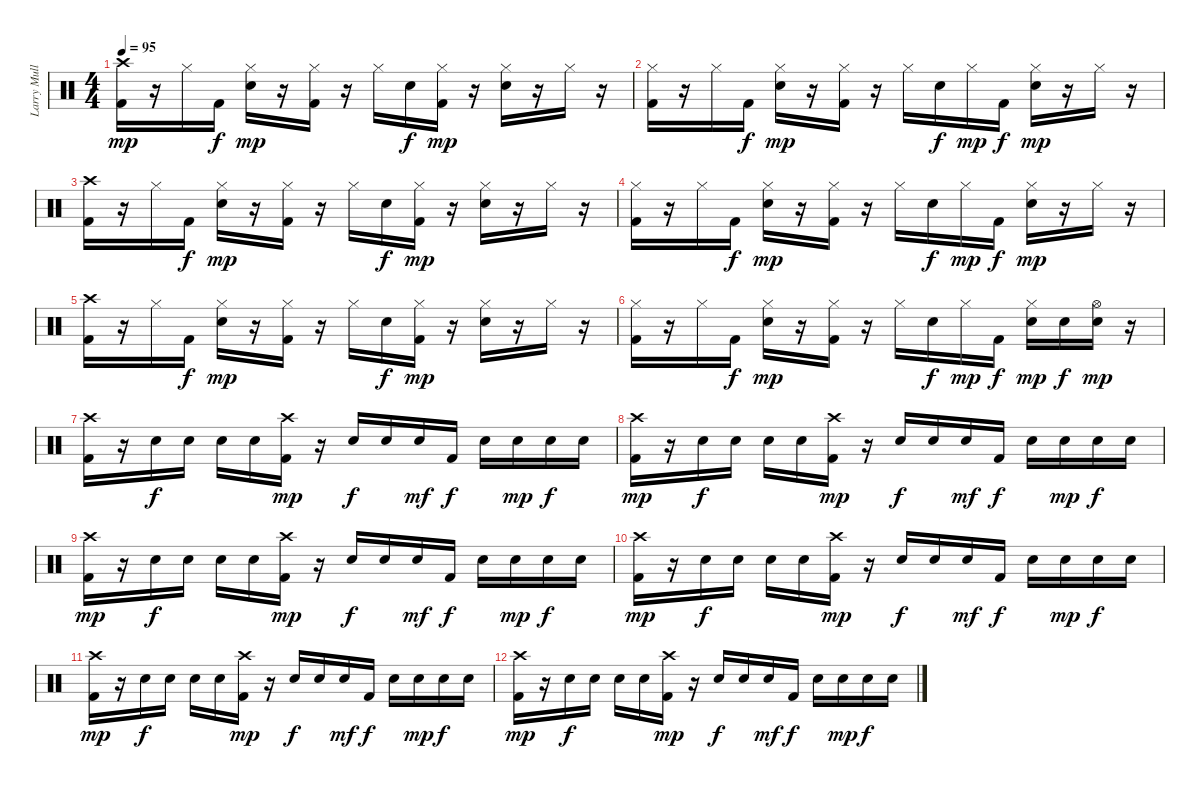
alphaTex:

\track ("Larry Mullen Jr" "Larry Mull") {instrument percussion}
\staff {score}
\articulation defaults
\ts (4 4)
\tempo 95
\clef neutral
\ks c
("Crash high (hit)" "Kick (hit) 2").16{dy mp} r.16 "Hi-Hat (closed)".16 "Kick (hit) 2".16{dy f} ("Hi-Hat (closed)" "Snare (hit) 2").16{dy mp} r.16 ("Hi-Hat (closed)" "Kick (hit) 2").16 r.16 "Hi-Hat (closed)".16 "Snare (hit) 2".16{dy f} ("Hi-Hat (closed)" "Kick (hit) 2").16{dy mp} r.16 ("Hi-Hat (closed)" "Snare (hit) 2").16 r.16 "Hi-Hat (closed)".16 r.16 |
("Hi-Hat (closed)" "Kick (hit) 2").16 r.16 "Hi-Hat (closed)".16 "Kick (hit) 2".16{dy f} ("Hi-Hat (closed)" "Snare (hit) 2").16{dy mp} r.16 ("Hi-Hat (closed)" "Kick (hit) 2").16 r.16 "Hi-Hat (closed)".16 "Snare (hit) 2".16{dy f} "Hi-Hat (closed)".16{dy mp} "Kick (hit) 2".16{dy f} ("Hi-Hat (closed)" "Snare (hit) 2").16{dy mp} r.16 "Hi-Hat (closed)".16 r.16 |
("Crash high (hit)" "Kick (hit) 2").16 r.16 "Hi-Hat (closed)".16 "Kick (hit) 2".16{dy f} ("Hi-Hat (closed)" "Snare (hit) 2").16{dy mp} r.16 ("Hi-Hat (closed)" "Kick (hit) 2").16 r.16 "Hi-Hat (closed)".16 "Snare (hit) 2".16{dy f} ("Hi-Hat (closed)" "Kick (hit) 2").16{dy mp} r.16 ("Hi-Hat (closed)" "Snare (hit) 2").16 r.16 "Hi-Hat (closed)".16 r.16 |
("Hi-Hat (closed)" "Kick (hit) 2").16 r.16 "Hi-Hat (closed)".16 "Kick (hit) 2".16{dy f} ("Hi-Hat (closed)" "Snare (hit) 2").16{dy mp} r.16 ("Hi-Hat (closed)" "Kick (hit) 2").16 r.16 "Hi-Hat (closed)".16 "Snare (hit) 2".16{dy f} "Hi-Hat (closed)".16{dy mp} "Kick (hit) 2".16{dy f} ("Hi-Hat (closed)" "Snare (hit) 2").16{dy mp} r.16 "Hi-Hat (closed)".16 r.16 |
("Crash high (hit)" "Kick (hit) 2").16 r.16 "Hi-Hat (closed)".16 "Kick (hit) 2".16{dy f} ("Hi-Hat (closed)" "Snare (hit) 2").16{dy mp} r.16 ("Hi-Hat (closed)" "Kick (hit) 2").16 r.16 "Hi-Hat (closed)".16 "Snare (hit) 2".16{dy f} ("Hi-Hat (closed)" "Kick (hit) 2").16{dy mp} r.16 ("Hi-Hat (closed)" "Snare (hit) 2").16 r.16 "Hi-Hat (closed)".16 r.16 |
("Hi-Hat (closed)" "Kick (hit) 2").16 r.16 "Hi-Hat (closed)".16 "Kick (hit) 2".16{dy f} ("Hi-Hat (closed)" "Snare (hit) 2").16{dy mp} r.16 ("Hi-Hat (closed)" "Kick (hit) 2").16 r.16 "Hi-Hat (closed)".16 "Snare (hit) 2".16{dy f} "Hi-Hat (closed)".16{dy mp} "Kick (hit) 2".16{dy f} ("Hi-Hat (closed)" "Snare (hit) 2").16{dy mp} "Snare (hit) 2".16{dy f} ("Hi-Hat (open)" "Snare (hit) 2").16{dy mp} r.16 |
("Crash high (hit)" "Kick (hit) 2").16 r.16 "Snare (hit) 2".16{dy f} "Snare (hit) 2".16 "Snare (hit) 2".16 "Snare (hit) 2".16 ("Crash high (hit)" "Kick (hit) 2").16{dy mp} r.16 "Snare (hit) 2".16{dy f} "Snare (hit) 2".16 "Snare (hit) 2".16{dy mf} "Kick (hit) 2".16{dy f} "Snare (hit) 2".16 "Snare (hit) 2".16{dy mp} "Snare (hit) 2".16{dy f} "Snare (hit) 2".16 |
("Crash high (hit)" "Kick (hit) 2").16{dy mp} r.16 "Snare (hit) 2".16{dy f} "Snare (hit) 2".16 "Snare (hit) 2".16 "Snare (hit) 2".16 ("Crash high (hit)" "Kick (hit) 2").16{dy mp} r.16 "Snare (hit) 2".16{dy f} "Snare (hit) 2".16 "Snare (hit) 2".16{dy mf} "Kick (hit) 2".16{dy f} "Snare (hit) 2".16 "Snare (hit) 2".16{dy mp} "Snare (hit) 2".16{dy f} "Snare (hit) 2".16 |
("Crash high (hit)" "Kick (hit) 2").16{dy mp} r.16 "Snare (hit) 2".16{dy f} "Snare (hit) 2".16 "Snare (hit) 2".16 "Snare (hit) 2".16 ("Crash high (hit)" "Kick (hit) 2").16{dy mp} r.16 "Snare (hit) 2".16{dy f} "Snare (hit) 2".16 "Snare (hit) 2".16{dy mf} "Kick (hit) 2".16{dy f} "Snare (hit) 2".16 "Snare (hit) 2".16{dy mp} "Snare (hit) 2".16{dy f} "Snare (hit) 2".16 |
("Crash high (hit)" "Kick (hit) 2").16{dy mp} r.16 "Snare (hit) 2".16{dy f} "Snare (hit) 2".16 "Snare (hit) 2".16 "Snare (hit) 2".16 ("Crash high (hit)" "Kick (hit) 2").16{dy mp} r.16 "Snare (hit) 2".16{dy f} "Snare (hit) 2".16 "Snare (hit) 2".16{dy mf} "Kick (hit) 2".16{dy f} "Snare (hit) 2".16 "Snare (hit) 2".16{dy mp} "Snare (hit) 2".16{dy f} "Snare (hit) 2".16 |
("Crash high (hit)" "Kick (hit) 2").16{dy mp} r.16 "Snare (hit) 2".16{dy f} "Snare (hit) 2".16 "Snare (hit) 2".16 "Snare (hit) 2".16 ("Crash high (hit)" "Kick (hit) 2").16{dy mp} r.16 "Snare (hit) 2".16{dy f} "Snare (hit) 2".16 "Snare (hit) 2".16{dy mf} "Kick (hit) 2".16{dy f} "Snare (hit) 2".16 "Snare (hit) 2".16{dy mp} "Snare (hit) 2".16{dy f} "Snare (hit) 2".16 |
("Crash high (hit)" "Kick (hit) 2").16{dy mp} r.16 "Snare (hit) 2".16{dy f} "Snare (hit) 2".16 "Snare (hit) 2".16 "Snare (hit) 2".16 ("Crash high (hit)" "Kick (hit) 2").16{dy mp} r.16 "Snare (hit) 2".16{dy f} "Snare (hit) 2".16 "Snare (hit) 2".16{dy mf} "Kick (hit) 2".16{dy f} "Snare (hit) 2".16 "Snare (hit) 2".16{dy mp} "Snare (hit) 2".16{dy f} "Snare (hit) 2".16
